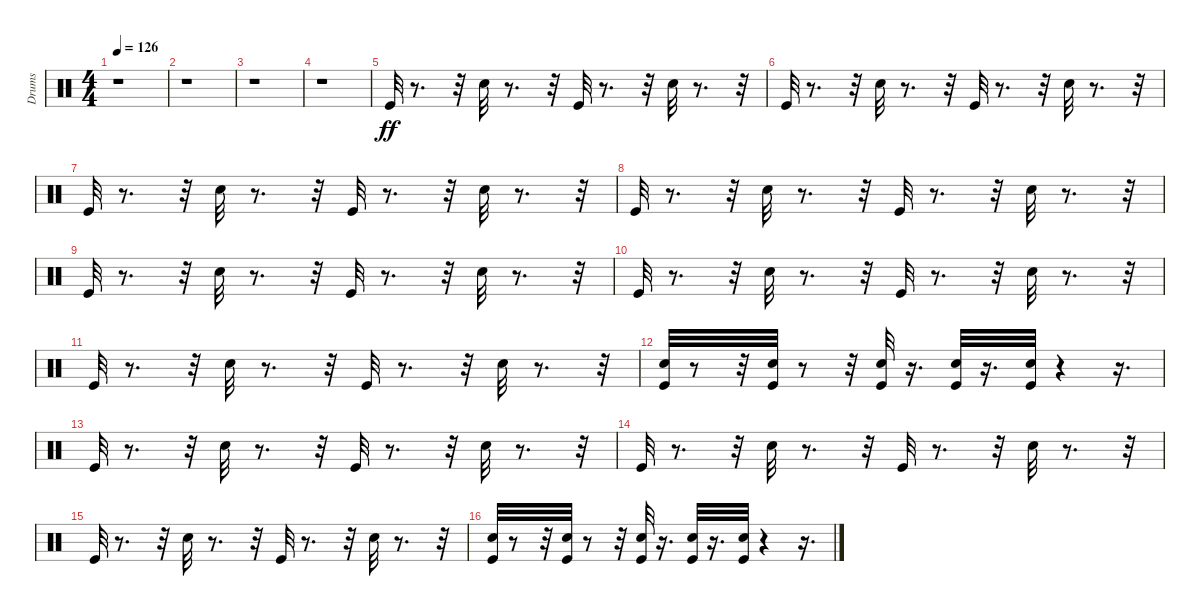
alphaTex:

\track ("Drums" "Drums") {instrument percussion}
\staff {score}
\articulation defaults
\ts (4 4)
\tempo 126
\clef neutral
\ks c
r.1{dy ff} |
r.1 |
r.1 |
r.1 |
"Kick (hit)".32 r.8{d} r.32 "Snare (hit) 2".32 r.8{d} r.32 "Kick (hit)".32 r.8{d} r.32 "Snare (hit) 2".32 r.8{d} r.32 |
"Kick (hit)".32 r.8{d} r.32 "Snare (hit) 2".32 r.8{d} r.32 "Kick (hit)".32 r.8{d} r.32 "Snare (hit) 2".32 r.8{d} r.32 |
"Kick (hit)".32 r.8{d} r.32 "Snare (hit) 2".32 r.8{d} r.32 "Kick (hit)".32 r.8{d} r.32 "Snare (hit) 2".32 r.8{d} r.32 |
"Kick (hit)".32 r.8{d} r.32 "Snare (hit) 2".32 r.8{d} r.32 "Kick (hit)".32 r.8{d} r.32 "Snare (hit) 2".32 r.8{d} r.32 |
"Kick (hit)".32 r.8{d} r.32 "Snare (hit) 2".32 r.8{d} r.32 "Kick (hit)".32 r.8{d} r.32 "Snare (hit) 2".32 r.8{d} r.32 |
"Kick (hit)".32 r.8{d} r.32 "Snare (hit) 2".32 r.8{d} r.32 "Kick (hit)".32 r.8{d} r.32 "Snare (hit) 2".32 r.8{d} r.32 |
"Kick (hit)".32 r.8{d} r.32 "Snare (hit) 2".32 r.8{d} r.32 "Kick (hit)".32 r.8{d} r.32 "Snare (hit) 2".32 r.8{d} r.32 |
("Kick (hit)" "Snare (hit) 2").32 r.8 r.32 ("Kick (hit)" "Snare (hit) 2").32 r.8 r.32 ("Kick (hit)" "Snare (hit) 2").32 r.16{d} ("Kick (hit)" "Snare (hit) 2").32 r.16{d} ("Kick (hit)" "Snare (hit) 2").32 r.4 r.16{d} |
"Kick (hit)".32 r.8{d} r.32 "Snare (hit) 2".32 r.8{d} r.32 "Kick (hit)".32 r.8{d} r.32 "Snare (hit) 2".32 r.8{d} r.32 |
"Kick (hit)".32 r.8{d} r.32 "Snare (hit) 2".32 r.8{d} r.32 "Kick (hit)".32 r.8{d} r.32 "Snare (hit) 2".32 r.8{d} r.32 |
"Kick (hit)".32 r.8{d} r.32 "Snare (hit) 2".32 r.8{d} r.32 "Kick (hit)".32 r.8{d} r.32 "Snare (hit) 2".32 r.8{d} r.32 |
("Kick (hit)" "Snare (hit) 2").32 r.8 r.32 ("Kick (hit)" "Snare (hit) 2").32 r.8 r.32 ("Kick (hit)" "Snare (hit) 2").32 r.16{d} ("Kick (hit)" "Snare (hit) 2").32 r.16{d} ("Kick (hit)" "Snare (hit) 2").32 r.4 r.16{d}
